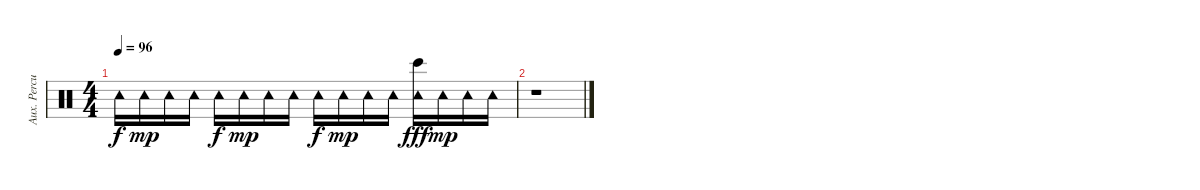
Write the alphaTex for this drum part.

\track ("Aux. Percussion" "Aux. Percu") {instrument percussion}
\staff {score}
\articulation defaults
\ts (4 4)
\tempo 96
\clef neutral
\ks c "Tambourine (hit)".16{dy f} "Tambourine (hit)".16{dy mp} "Tambourine (hit)".16 "Tambourine (hit)".16 "Tambourine (hit)".16{dy f} "Tambourine (hit)".16{dy mp} "Tambourine (hit)".16 "Tambourine (hit)".16 "Tambourine (hit)".16{dy f} "Tambourine (hit)".16{dy mp} "Tambourine (hit)".16 "Tambourine (hit)".16
("Tambourine (hit)" "Bongo High (hit)").16{dy fff} "Tambourine (hit)".16{dy mp} "Tambourine (hit)".16 "Tambourine (hit)".16 |
r.1
